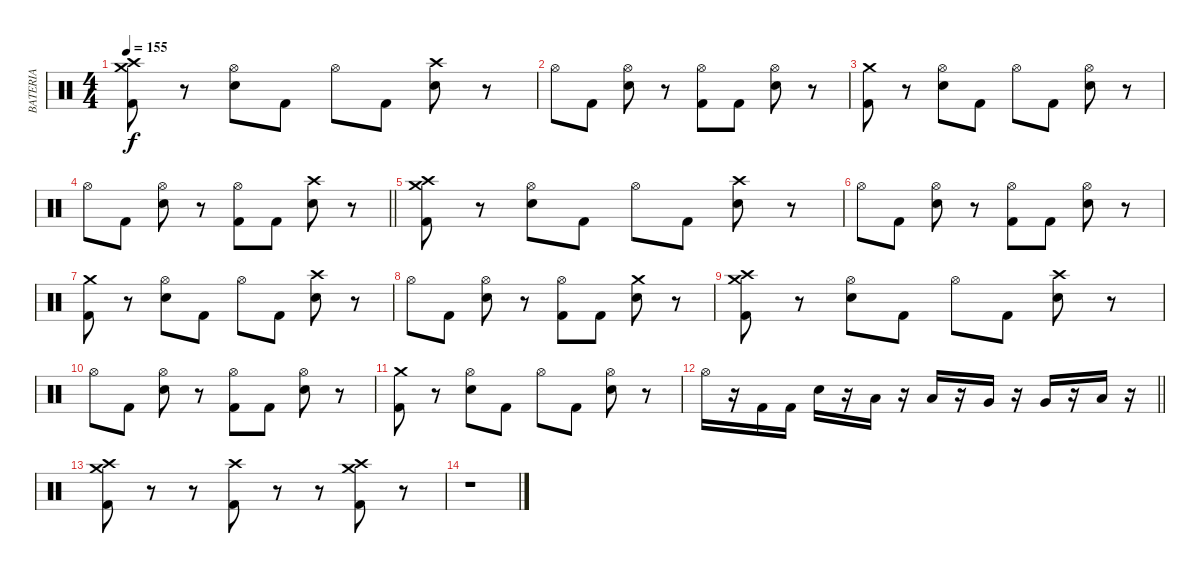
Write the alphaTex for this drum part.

\track ("BATERIA" "BATERIA") {instrument percussion}
\staff {score}
\articulation defaults
\ts (4 4)
\tempo 155
\clef neutral
\ks c
("Kick (hit) 2" "Crash high (hit)" "Crash medium (hit)").8{dy f} r.8 ("Hi-Hat (open)" "Electric Snare (hit)").8 "Kick (hit) 2".8 "Hi-Hat (open)".8 "Kick (hit) 2".8 ("Electric Snare (hit)" "Crash high (hit)").8 r.8 |
"Hi-Hat (open)".8 "Kick (hit) 2".8 ("Hi-Hat (open)" "Electric Snare (hit)").8 r.8 ("Kick (hit) 2" "Hi-Hat (open)").8 "Kick (hit) 2".8 ("Hi-Hat (open)" "Electric Snare (hit)").8 r.8 |
("Kick (hit) 2" "Crash medium (hit)").8 r.8 ("Hi-Hat (open)" "Electric Snare (hit)").8 "Kick (hit) 2".8 "Hi-Hat (open)".8 "Kick (hit) 2".8 ("Hi-Hat (open)" "Electric Snare (hit)").8 r.8 |
\barLineRight lightlight "Hi-Hat (open)".8 "Kick (hit) 2".8
("Hi-Hat (open)" "Electric Snare (hit)").8 r.8 ("Kick (hit) 2" "Hi-Hat (open)").8 "Kick (hit) 2".8 ("Electric Snare (hit)" "Crash high (hit)").8 r.8 |
("Kick (hit) 2" "Crash high (hit)" "Crash medium (hit)").8 r.8 ("Hi-Hat (open)" "Electric Snare (hit)").8 "Kick (hit) 2".8 "Hi-Hat (open)".8 "Kick (hit) 2".8 ("Electric Snare (hit)" "Crash high (hit)").8 r.8 |
"Hi-Hat (open)".8 "Kick (hit) 2".8 ("Hi-Hat (open)" "Electric Snare (hit)").8 r.8 ("Kick (hit) 2" "Hi-Hat (open)").8 "Kick (hit) 2".8 ("Hi-Hat (open)" "Electric Snare (hit)").8 r.8 |
("Kick (hit) 2" "Crash medium (hit)").8 r.8 ("Hi-Hat (open)" "Electric Snare (hit)").8 "Kick (hit) 2".8 "Hi-Hat (open)".8 "Kick (hit) 2".8 ("Electric Snare (hit)" "Crash high (hit)").8 r.8 |
"Hi-Hat (open)".8 "Kick (hit) 2".8 ("Hi-Hat (open)" "Electric Snare (hit)").8 r.8 ("Kick (hit) 2" "Hi-Hat (open)").8 "Kick (hit) 2".8 ("Electric Snare (hit)" "Crash medium (hit)").8 r.8 |
("Kick (hit) 2" "Crash high (hit)" "Crash medium (hit)").8 r.8 ("Hi-Hat (open)" "Electric Snare (hit)").8 "Kick (hit) 2".8 "Hi-Hat (open)".8 "Kick (hit) 2".8 ("Electric Snare (hit)" "Crash high (hit)").8 r.8 |
"Hi-Hat (open)".8 "Kick (hit) 2".8 ("Hi-Hat (open)" "Electric Snare (hit)").8 r.8 ("Kick (hit) 2" "Hi-Hat (open)").8 "Kick (hit) 2".8 ("Hi-Hat (open)" "Electric Snare (hit)").8 r.8 |
("Kick (hit) 2" "Crash medium (hit)").8 r.8 ("Hi-Hat (open)" "Electric Snare (hit)").8 "Kick (hit) 2".8 "Hi-Hat (open)".8 "Kick (hit) 2".8 ("Hi-Hat (open)" "Electric Snare (hit)").8 r.8 |
\barLineRight lightlight "Hi-Hat (open)".16
r.16 "Kick (hit) 2".16 "Kick (hit) 2".16 "Electric Snare (hit)".16 r.16 "Low Tom (hit)".16 r.16 "Low Tom (hit)".16 r.16 "Very Low Tom (hit)".16 r.16 "Very Low Tom (hit)".16 r.16 "Low Floor Tom (hit)".16 r.16 |
("Kick (hit) 2" "Crash medium (hit)" "Crash high (hit)").8 r.8 r.8 ("Kick (hit) 2" "Crash high (hit)").8 r.8 r.8 ("Kick (hit) 2" "Crash medium (hit)" "Crash high (hit)").8 r.8 |
r.1
